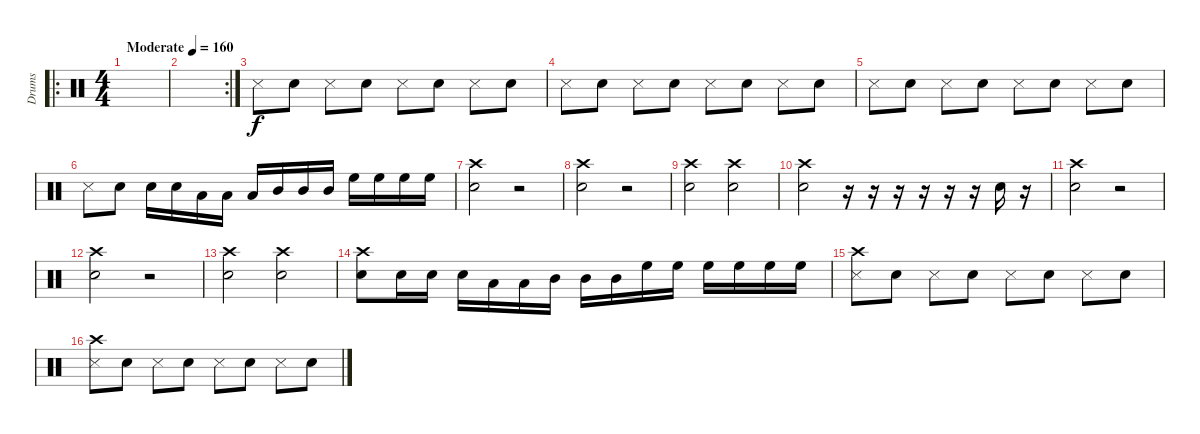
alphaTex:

\track ("Drums " "Drums ") {instrument percussion}
\staff {score}
\articulation defaults
\ro
\ts (4 4)
\tempo (160 "Moderate")
\clef neutral
\ks c
|
\rc 2
|
"Metronome (hit)".8 "Snare (hit) 2".8 "Metronome (hit)".8 "Snare (hit) 2".8 "Metronome (hit)".8 "Snare (hit) 2".8 "Metronome (hit)".8 "Snare (hit) 2".8 |
"Metronome (hit)".8 "Snare (hit) 2".8 "Metronome (hit)".8 "Snare (hit) 2".8 "Metronome (hit)".8 "Snare (hit) 2".8 "Metronome (hit)".8 "Snare (hit) 2".8 |
"Metronome (hit)".8 "Snare (hit) 2".8 "Metronome (hit)".8 "Snare (hit) 2".8 "Metronome (hit)".8 "Snare (hit) 2".8 "Metronome (hit)".8 "Snare (hit) 2".8 |
"Metronome (hit)".8 "Snare (hit) 2".8 "Electric Snare (hit)".16 "Electric Snare (hit)".16 "Low Tom (hit)".16 "Low Tom (hit)".16 "Low Tom (hit)".16 "Mid Tom (hit)".16 "Mid Tom (hit)".16 "Mid Tom (hit)".16 "High Floor Tom (hit)".16 "High Floor Tom (hit)".16 "High Floor Tom (hit)".16 "High Floor Tom (hit)".16 |
("Crash high (hit)" "Snare (hit) 2").2 r.2 |
("Crash high (hit)" "Snare (hit) 2").2 r.2 |
("Crash high (hit)" "Snare (hit) 2").2 ("Crash high (hit)" "Snare (hit) 2").2 |
("Crash high (hit)" "Snare (hit) 2").2 r.16 r.16 r.16 r.16 r.16 r.16 "Snare (hit) 2".16 r.16 |
("Crash high (hit)" "Snare (hit) 2").2 r.2 |
("Crash high (hit)" "Snare (hit) 2").2 r.2 |
("Crash high (hit)" "Snare (hit) 2").2 ("Crash high (hit)" "Snare (hit) 2").2 |
("Crash high (hit)" "Electric Snare (hit)").8 "Electric Snare (hit)".16 "Electric Snare (hit)".16 "Electric Snare (hit)".16 "Low Tom (hit)".16 "Low Tom (hit)".16 "Mid Tom (hit)".16 "Mid Tom (hit)".16 "Mid Tom (hit)".16 "High Floor Tom (hit)".16 "High Floor Tom (hit)".16 "High Floor Tom (hit)".16 "High Floor Tom (hit)".16 "High Floor Tom (hit)".16 "High Floor Tom (hit)".16 |
("Crash high (hit)" "Metronome (hit)").8 "Snare (hit) 2".8 "Metronome (hit)".8 "Snare (hit) 2".8 "Metronome (hit)".8 "Snare (hit) 2".8 "Metronome (hit)".8 "Snare (hit) 2".8 |
("Crash high (hit)" "Metronome (hit)").8 "Snare (hit) 2".8 "Metronome (hit)".8 "Snare (hit) 2".8 "Metronome (hit)".8 "Snare (hit) 2".8 "Metronome (hit)".8 "Snare (hit) 2".8
